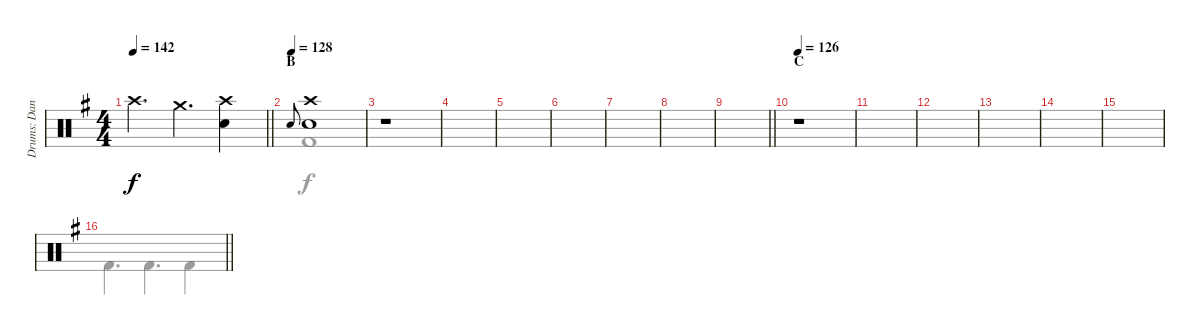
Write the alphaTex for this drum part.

\track ("Drums: Dana" "Drums: Dan") {instrument percussion}
\staff {score}
\articulation defaults
\voice
\ts (4 4)
\tempo 142
\clef neutral
\barLineRight lightlight
\ks g "Crash high (hit)".4{d dy f} "Crash medium (hit)".4{d}
("Crash high (hit)" "Snare (hit) 2").4 |
\section ("" "B")
\tempo (128 0.03125)
"Electric Snare (hit)".8{gr onbeat} ("Crash high (hit)" "Snare (hit) 2").1 |
r.1{volume 0} |
|
|
|
|
|
\barLineRight lightlight
|
\section ("" "C")
\tempo 126
r.1 |
|
|
|
|
|
\barLineRight lightlight
\voice
\clef neutral
\ottava regular
\simile none
\barLineRight lightlight
\ks g "Kick (hit) 2".4{d dy f} "Kick (hit) 2".4{d} "Kick (hit) 2".4
|
"Kick (hit) 2".1 |
|
|
|
|
|
|
\barLineRight lightlight
|
|
|
|
|
|
|
\barLineRight lightlight
